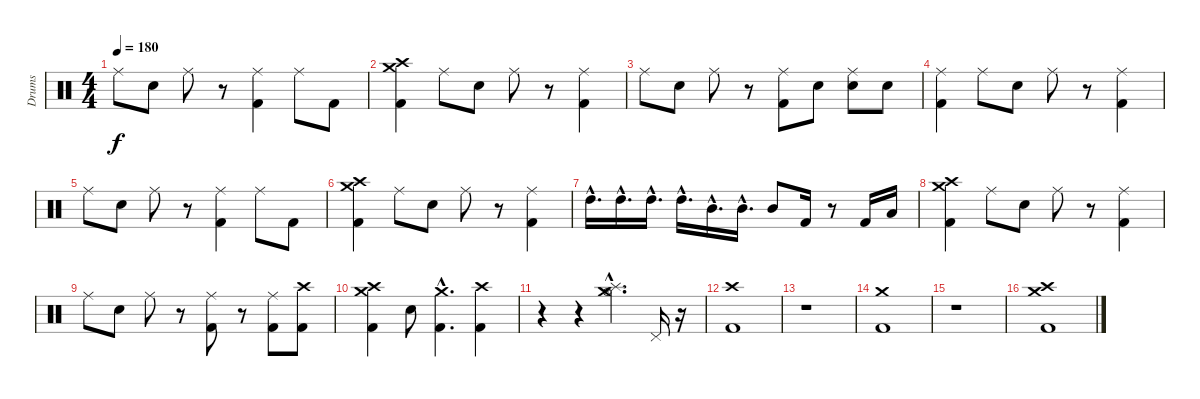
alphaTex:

\track ("Drums" "Drums") {instrument percussion}
\staff {score}
\articulation defaults
\ts (4 4)
\tempo 180
\clef neutral
\ks c "Ride (middle)".8{dy f} "Electric Snare (hit)".8 "Ride (middle)".8
r.8 ("Ride (middle)" "Kick (hit) 2").4 "Ride (middle)".8 "Kick (hit) 2".8 |
("Crash high (hit)" "Crash medium (hit)" "Kick (hit) 2").4 "Ride (middle)".8 "Electric Snare (hit)".8 "Ride (middle)".8 r.8 ("Ride (middle)" "Kick (hit) 2").4 |
"Ride (middle)".8 "Electric Snare (hit)".8 "Ride (middle)".8 r.8 ("Ride (middle)" "Kick (hit) 2").8 "Electric Snare (hit)".8 ("Ride (middle)" "Electric Snare (hit)").8 "Electric Snare (hit)".8 |
("Ride (middle)" "Kick (hit) 2").4 "Ride (middle)".8 "Electric Snare (hit)".8 "Ride (middle)".8 r.8 ("Ride (middle)" "Kick (hit) 2").4 |
"Ride (middle)".8 "Electric Snare (hit)".8 "Ride (middle)".8 r.8 ("Ride (middle)" "Kick (hit) 2").4 "Ride (middle)".8 "Kick (hit) 2".8 |
("Crash high (hit)" "Crash medium (hit)" "Kick (hit) 2").4 "Ride (middle)".8 "Electric Snare (hit)".8 "Ride (middle)".8 r.8 ("Ride (middle)" "Kick (hit) 2").4 |
"High Tom (hit)"{hac}.16{d} "High Tom (hit)"{hac}.16{d} "High Tom (hit)"{hac}.16{d} "High Tom (hit)"{hac}.16{d} "Mid Tom (hit)"{hac}.16{d} "Mid Tom (hit)"{hac}.16{d} "Mid Tom (hit)".8 "Kick (hit) 2".16 r.8 "Kick (hit) 2".16 "Low Tom (hit)".16 |
("Crash high (hit)" "Crash medium (hit)" "Kick (hit) 2").4 "Ride (middle)".8 "Electric Snare (hit)".8 "Ride (middle)".8 r.8 ("Ride (middle)" "Kick (hit) 2").4 |
"Ride (middle)".8 "Electric Snare (hit)".8 "Ride (middle)".8 r.8 ("Ride (middle)" "Kick (hit) 2").8 r.8 ("Ride (middle)" "Kick (hit) 2").8 ("Crash high (hit)" "Kick (hit) 2").8 |
("Crash high (hit)" "Crash medium (hit)" "Kick (hit) 2").4 "Electric Snare (hit)".8 ("Crash medium (hit)"{hac} "Kick (hit) 2"{hac}).4{d} ("Crash high (hit)" "Kick (hit) 2").4 |
r.4 r.4 ("Splash (hit)"{hac} "Crash medium (hit)"{hac} "Hi-Hat (open)"{hac}).4{d} "Pedal Hi-Hat (hit)".16 r.16 |
("Crash high (hit)" "Kick (hit) 2").1 |
r.1 |
("Crash medium (hit)" "Kick (hit) 2").1 |
r.1 |
("Crash medium (hit)" "Crash high (hit)" "Kick (hit) 2").1
